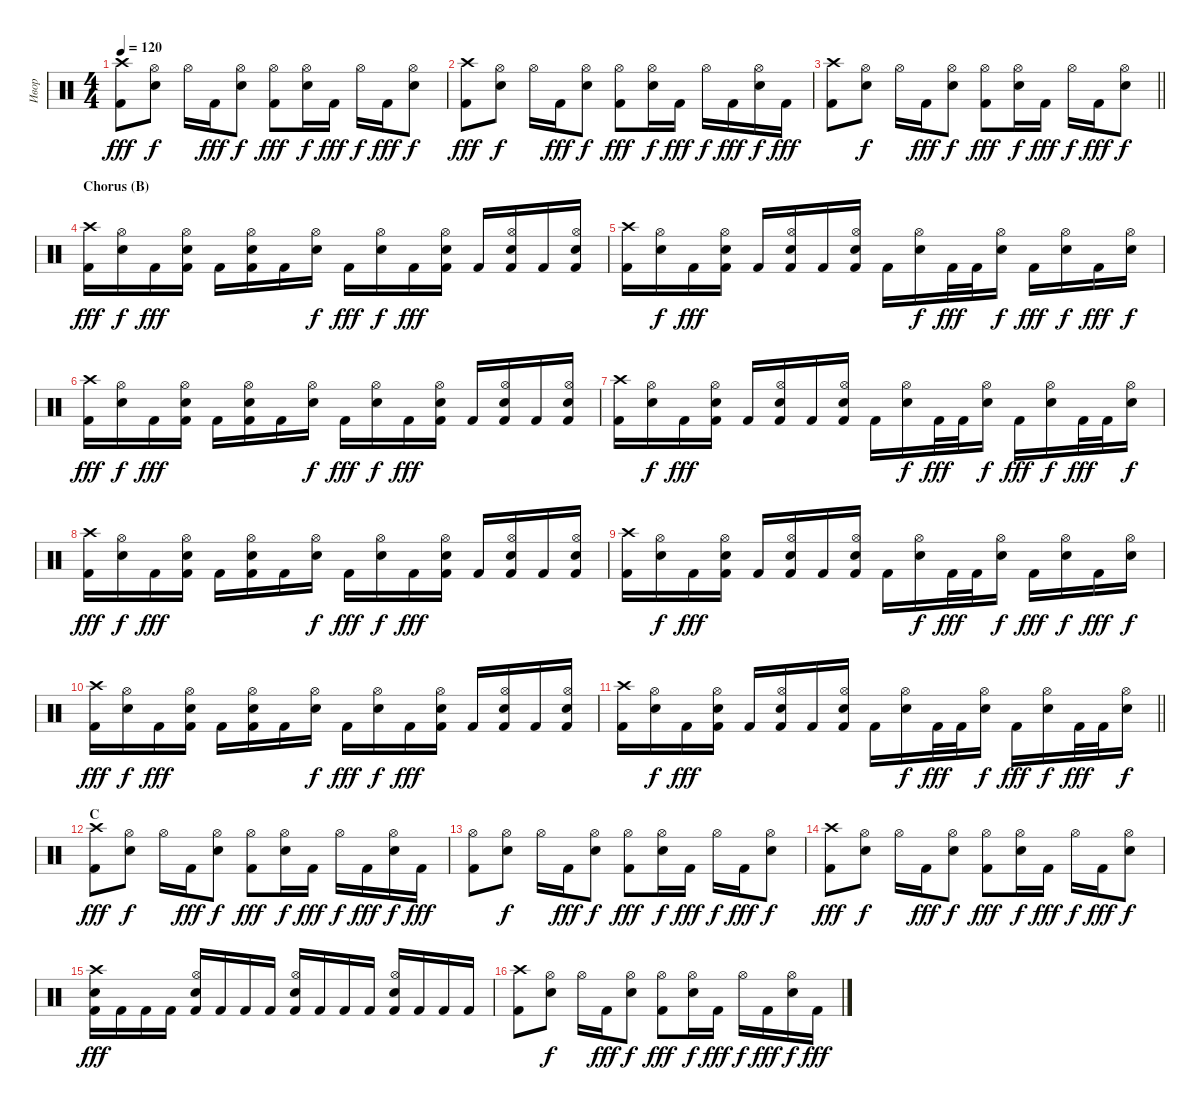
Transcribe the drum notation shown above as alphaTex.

\track ("Ивор" "Ивор") {instrument percussion}
\staff {score}
\articulation defaults
\ts (4 4)
\tempo 120
\clef neutral
\ks c
("Crash high (hit)" "Kick (hit) 2").8{dy fff} ("Hi-Hat (open)" "Electric Snare (hit)").8{dy f} "Hi-Hat (open)".16 "Kick (hit) 2".16{dy fff} ("Hi-Hat (open)" "Electric Snare (hit)").8{dy f} ("Hi-Hat (open)" "Kick (hit) 2").8{dy fff} ("Hi-Hat (open)" "Electric Snare (hit)").16{dy f} "Kick (hit) 2".16{dy fff} "Hi-Hat (open)".16{dy f} "Kick (hit) 2".16{dy fff} ("Hi-Hat (open)" "Electric Snare (hit)").8{dy f} |
("Crash high (hit)" "Kick (hit) 2").8{dy fff} ("Hi-Hat (open)" "Electric Snare (hit)").8{dy f} "Hi-Hat (open)".16 "Kick (hit) 2".16{dy fff} ("Hi-Hat (open)" "Electric Snare (hit)").8{dy f} ("Hi-Hat (open)" "Kick (hit) 2").8{dy fff} ("Hi-Hat (open)" "Electric Snare (hit)").16{dy f} "Kick (hit) 2".16{dy fff} "Hi-Hat (open)".16{dy f} "Kick (hit) 2".16{dy fff} ("Hi-Hat (open)" "Electric Snare (hit)").16{dy f} "Kick (hit) 2".16{dy fff} |
\barLineRight lightlight
("Crash high (hit)" "Kick (hit) 2").8 ("Hi-Hat (open)" "Electric Snare (hit)").8{dy f} "Hi-Hat (open)".16 "Kick (hit) 2".16{dy fff} ("Hi-Hat (open)" "Electric Snare (hit)").8{dy f} ("Hi-Hat (open)" "Kick (hit) 2").8{dy fff} ("Hi-Hat (open)" "Electric Snare (hit)").16{dy f} "Kick (hit) 2".16{dy fff} "Hi-Hat (open)".16{dy f} "Kick (hit) 2".16{dy fff} ("Hi-Hat (open)" "Electric Snare (hit)").8{dy f} |
\section ("" "Chorus (B)")
("Crash high (hit)" "Kick (hit) 2").16{dy fff} ("Hi-Hat (open)" "Electric Snare (hit)").16{dy f} "Kick (hit) 2".16{dy fff} ("Hi-Hat (open)" "Electric Snare (hit)" "Kick (hit) 2").16 "Kick (hit) 2".16 ("Hi-Hat (open)" "Electric Snare (hit)" "Kick (hit) 2").16 "Kick (hit) 2".16 ("Hi-Hat (open)" "Electric Snare (hit)").16{dy f} "Kick (hit) 2".16{dy fff} ("Hi-Hat (open)" "Electric Snare (hit)").16{dy f} "Kick (hit) 2".16{dy fff} ("Hi-Hat (open)" "Electric Snare (hit)" "Kick (hit) 2").16 "Kick (hit) 2".16 ("Hi-Hat (open)" "Electric Snare (hit)" "Kick (hit) 2").16 "Kick (hit) 2".16 ("Hi-Hat (open)" "Electric Snare (hit)" "Kick (hit) 2").16 |
("Crash high (hit)" "Kick (hit) 2").16 ("Hi-Hat (open)" "Electric Snare (hit)").16{dy f} "Kick (hit) 2".16{dy fff} ("Hi-Hat (open)" "Electric Snare (hit)" "Kick (hit) 2").16 "Kick (hit) 2".16 ("Hi-Hat (open)" "Electric Snare (hit)" "Kick (hit) 2").16 "Kick (hit) 2".16 ("Hi-Hat (open)" "Electric Snare (hit)" "Kick (hit) 2").16 "Kick (hit) 2".16 ("Hi-Hat (open)" "Electric Snare (hit)").16{dy f} "Kick (hit) 2".32{dy fff} "Kick (hit) 2".32 ("Hi-Hat (open)" "Electric Snare (hit)").16{dy f} "Kick (hit) 2".16{dy fff} ("Hi-Hat (open)" "Electric Snare (hit)").16{dy f} "Kick (hit) 2".16{dy fff} ("Hi-Hat (open)" "Electric Snare (hit)").16{dy f} |
("Crash high (hit)" "Kick (hit) 2").16{dy fff} ("Hi-Hat (open)" "Electric Snare (hit)").16{dy f} "Kick (hit) 2".16{dy fff} ("Hi-Hat (open)" "Electric Snare (hit)" "Kick (hit) 2").16 "Kick (hit) 2".16 ("Hi-Hat (open)" "Electric Snare (hit)" "Kick (hit) 2").16 "Kick (hit) 2".16 ("Hi-Hat (open)" "Electric Snare (hit)").16{dy f} "Kick (hit) 2".16{dy fff} ("Hi-Hat (open)" "Electric Snare (hit)").16{dy f} "Kick (hit) 2".16{dy fff} ("Hi-Hat (open)" "Electric Snare (hit)" "Kick (hit) 2").16 "Kick (hit) 2".16 ("Hi-Hat (open)" "Electric Snare (hit)" "Kick (hit) 2").16 "Kick (hit) 2".16 ("Hi-Hat (open)" "Electric Snare (hit)" "Kick (hit) 2").16 |
("Crash high (hit)" "Kick (hit) 2").16 ("Hi-Hat (open)" "Electric Snare (hit)").16{dy f} "Kick (hit) 2".16{dy fff} ("Hi-Hat (open)" "Electric Snare (hit)" "Kick (hit) 2").16 "Kick (hit) 2".16 ("Hi-Hat (open)" "Electric Snare (hit)" "Kick (hit) 2").16 "Kick (hit) 2".16 ("Hi-Hat (open)" "Electric Snare (hit)" "Kick (hit) 2").16 "Kick (hit) 2".16 ("Hi-Hat (open)" "Electric Snare (hit)").16{dy f} "Kick (hit) 2".32{dy fff} "Kick (hit) 2".32 ("Hi-Hat (open)" "Electric Snare (hit)").16{dy f} "Kick (hit) 2".16{dy fff} ("Hi-Hat (open)" "Electric Snare (hit)").16{dy f} "Kick (hit) 2".32{dy fff} "Kick (hit) 2".32 ("Hi-Hat (open)" "Electric Snare (hit)").16{dy f} |
("Crash high (hit)" "Kick (hit) 2").16{dy fff} ("Hi-Hat (open)" "Electric Snare (hit)").16{dy f} "Kick (hit) 2".16{dy fff} ("Hi-Hat (open)" "Electric Snare (hit)" "Kick (hit) 2").16 "Kick (hit) 2".16 ("Hi-Hat (open)" "Electric Snare (hit)" "Kick (hit) 2").16 "Kick (hit) 2".16 ("Hi-Hat (open)" "Electric Snare (hit)").16{dy f} "Kick (hit) 2".16{dy fff} ("Hi-Hat (open)" "Electric Snare (hit)").16{dy f} "Kick (hit) 2".16{dy fff} ("Hi-Hat (open)" "Electric Snare (hit)" "Kick (hit) 2").16 "Kick (hit) 2".16 ("Hi-Hat (open)" "Electric Snare (hit)" "Kick (hit) 2").16 "Kick (hit) 2".16 ("Hi-Hat (open)" "Electric Snare (hit)" "Kick (hit) 2").16 |
("Crash high (hit)" "Kick (hit) 2").16 ("Hi-Hat (open)" "Electric Snare (hit)").16{dy f} "Kick (hit) 2".16{dy fff} ("Hi-Hat (open)" "Electric Snare (hit)" "Kick (hit) 2").16 "Kick (hit) 2".16 ("Hi-Hat (open)" "Electric Snare (hit)" "Kick (hit) 2").16 "Kick (hit) 2".16 ("Hi-Hat (open)" "Electric Snare (hit)" "Kick (hit) 2").16 "Kick (hit) 2".16 ("Hi-Hat (open)" "Electric Snare (hit)").16{dy f} "Kick (hit) 2".32{dy fff} "Kick (hit) 2".32 ("Hi-Hat (open)" "Electric Snare (hit)").16{dy f} "Kick (hit) 2".16{dy fff} ("Hi-Hat (open)" "Electric Snare (hit)").16{dy f} "Kick (hit) 2".16{dy fff} ("Hi-Hat (open)" "Electric Snare (hit)").16{dy f} |
("Crash high (hit)" "Kick (hit) 2").16{dy fff} ("Hi-Hat (open)" "Electric Snare (hit)").16{dy f} "Kick (hit) 2".16{dy fff} ("Hi-Hat (open)" "Electric Snare (hit)" "Kick (hit) 2").16 "Kick (hit) 2".16 ("Hi-Hat (open)" "Electric Snare (hit)" "Kick (hit) 2").16 "Kick (hit) 2".16 ("Hi-Hat (open)" "Electric Snare (hit)").16{dy f} "Kick (hit) 2".16{dy fff} ("Hi-Hat (open)" "Electric Snare (hit)").16{dy f} "Kick (hit) 2".16{dy fff} ("Hi-Hat (open)" "Electric Snare (hit)" "Kick (hit) 2").16 "Kick (hit) 2".16 ("Hi-Hat (open)" "Electric Snare (hit)" "Kick (hit) 2").16 "Kick (hit) 2".16 ("Hi-Hat (open)" "Electric Snare (hit)" "Kick (hit) 2").16 |
\barLineRight lightlight
("Crash high (hit)" "Kick (hit) 2").16 ("Hi-Hat (open)" "Electric Snare (hit)").16{dy f} "Kick (hit) 2".16{dy fff} ("Hi-Hat (open)" "Electric Snare (hit)" "Kick (hit) 2").16 "Kick (hit) 2".16 ("Hi-Hat (open)" "Electric Snare (hit)" "Kick (hit) 2").16 "Kick (hit) 2".16 ("Hi-Hat (open)" "Electric Snare (hit)" "Kick (hit) 2").16 "Kick (hit) 2".16 ("Hi-Hat (open)" "Electric Snare (hit)").16{dy f} "Kick (hit) 2".32{dy fff} "Kick (hit) 2".32 ("Hi-Hat (open)" "Electric Snare (hit)").16{dy f} "Kick (hit) 2".16{dy fff} ("Hi-Hat (open)" "Electric Snare (hit)").16{dy f} "Kick (hit) 2".32{dy fff} "Kick (hit) 2".32 ("Hi-Hat (open)" "Electric Snare (hit)").16{dy f} |
\section ("" "C")
("Crash high (hit)" "Kick (hit) 2").8{dy fff} ("Hi-Hat (open)" "Electric Snare (hit)").8{dy f} "Hi-Hat (open)".16 "Kick (hit) 2".16{dy fff} ("Hi-Hat (open)" "Electric Snare (hit)").8{dy f} ("Hi-Hat (open)" "Kick (hit) 2").8{dy fff} ("Hi-Hat (open)" "Electric Snare (hit)").16{dy f} "Kick (hit) 2".16{dy fff} "Hi-Hat (open)".16{dy f} "Kick (hit) 2".16{dy fff} ("Hi-Hat (open)" "Electric Snare (hit)").16{dy f} "Kick (hit) 2".16{dy fff} |
("Hi-Hat (open)" "Kick (hit) 2").8 ("Hi-Hat (open)" "Electric Snare (hit)").8{dy f} "Hi-Hat (open)".16 "Kick (hit) 2".16{dy fff} ("Hi-Hat (open)" "Electric Snare (hit)").8{dy f} ("Hi-Hat (open)" "Kick (hit) 2").8{dy fff} ("Hi-Hat (open)" "Electric Snare (hit)").16{dy f} "Kick (hit) 2".16{dy fff} "Hi-Hat (open)".16{dy f} "Kick (hit) 2".16{dy fff} ("Hi-Hat (open)" "Electric Snare (hit)").8{dy f} |
("Crash high (hit)" "Kick (hit) 2").8{dy fff} ("Hi-Hat (open)" "Electric Snare (hit)").8{dy f} "Hi-Hat (open)".16 "Kick (hit) 2".16{dy fff} ("Hi-Hat (open)" "Electric Snare (hit)").8{dy f} ("Hi-Hat (open)" "Kick (hit) 2").8{dy fff} ("Hi-Hat (open)" "Electric Snare (hit)").16{dy f} "Kick (hit) 2".16{dy fff} "Hi-Hat (open)".16{dy f} "Kick (hit) 2".16{dy fff} ("Hi-Hat (open)" "Electric Snare (hit)").8{dy f} |
("Crash high (hit)" "Electric Snare (hit)" "Kick (hit) 2").16{dy fff} "Kick (hit) 2".16 "Kick (hit) 2".16 "Kick (hit) 2".16 ("Hi-Hat (open)" "Electric Snare (hit)" "Kick (hit) 2").16 "Kick (hit) 2".16 "Kick (hit) 2".16 "Kick (hit) 2".16 ("Hi-Hat (open)" "Electric Snare (hit)" "Kick (hit) 2").16 "Kick (hit) 2".16 "Kick (hit) 2".16 "Kick (hit) 2".16 ("Hi-Hat (open)" "Electric Snare (hit)" "Kick (hit) 2").16 "Kick (hit) 2".16 "Kick (hit) 2".16 "Kick (hit) 2".16 |
("Crash high (hit)" "Kick (hit) 2").8 ("Hi-Hat (open)" "Electric Snare (hit)").8{dy f} "Hi-Hat (open)".16 "Kick (hit) 2".16{dy fff} ("Hi-Hat (open)" "Electric Snare (hit)").8{dy f} ("Hi-Hat (open)" "Kick (hit) 2").8{dy fff} ("Hi-Hat (open)" "Electric Snare (hit)").16{dy f} "Kick (hit) 2".16{dy fff} "Hi-Hat (open)".16{dy f} "Kick (hit) 2".16{dy fff} ("Hi-Hat (open)" "Electric Snare (hit)").16{dy f} "Kick (hit) 2".16{dy fff}
